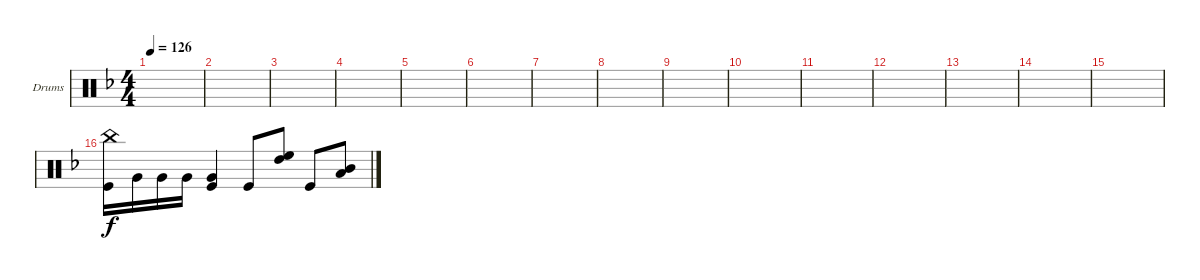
\defaultSystemsLayout 4
\bracketExtendMode groupsimilarinstruments
\firstSystemTrackNameOrientation horizontal
\otherSystemsTrackNameOrientation horizontal
\track ("Drumkit" "Drums") {instrument percussion}
\staff {score}
\articulation defaults
\ts (4 4)
\tempo 126
\clef neutral
\ks f
|
|
|
|
|
|
|
|
|
|
|
|
|
|
|
("China (hit)" "Kick (hit)").16 "Very Low Tom (hit)".16 "Very Low Tom (hit)".16 "Very Low Tom (hit)".16 ("Kick (hit)" "Very Low Tom (hit)").4 "Kick (hit)".8 ("High Floor Tom (hit)" "High Tom (hit)").8 "Kick (hit)".8 ("Mid Tom (hit)" "Low Tom (hit)").8
